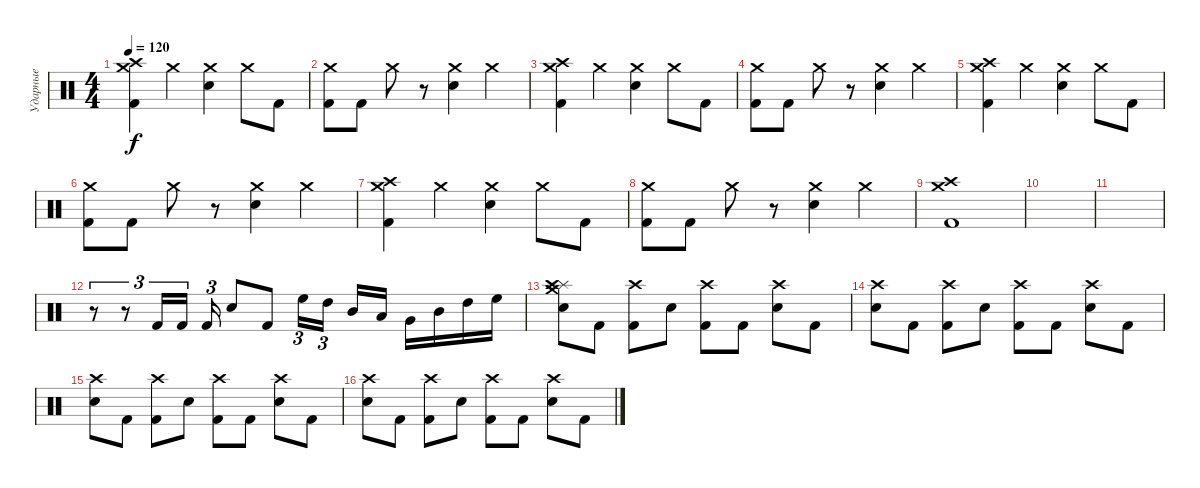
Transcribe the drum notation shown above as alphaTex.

\track ("Ударные" "Ударные") {instrument percussion}
\staff {score}
\articulation defaults
\ts (4 4)
\tempo 120
\clef neutral
\ks c
("Crash medium (hit)" "Crash high (hit)" "Kick (hit) 2").4{dy f} "Crash medium (hit)".4 ("Crash medium (hit)" "Electric Snare (hit)").4 "Crash medium (hit)".8 "Kick (hit) 2".8 |
("Crash medium (hit)" "Kick (hit) 2").8 "Kick (hit) 2".8 "Crash medium (hit)".8 r.8 ("Crash medium (hit)" "Electric Snare (hit)").4 "Crash medium (hit)".4 |
("Crash medium (hit)" "Crash high (hit)" "Kick (hit) 2").4 "Crash medium (hit)".4 ("Crash medium (hit)" "Electric Snare (hit)").4 "Crash medium (hit)".8 "Kick (hit) 2".8 |
("Crash medium (hit)" "Kick (hit) 2").8 "Kick (hit) 2".8 "Crash medium (hit)".8 r.8 ("Crash medium (hit)" "Electric Snare (hit)").4 "Crash medium (hit)".4 |
("Crash medium (hit)" "Crash high (hit)" "Kick (hit) 2").4 "Crash medium (hit)".4 ("Crash medium (hit)" "Electric Snare (hit)").4 "Crash medium (hit)".8 "Kick (hit) 2".8 |
("Crash medium (hit)" "Kick (hit) 2").8 "Kick (hit) 2".8 "Crash medium (hit)".8 r.8 ("Crash medium (hit)" "Electric Snare (hit)").4 "Crash medium (hit)".4 |
("Crash medium (hit)" "Crash high (hit)" "Kick (hit) 2").4 "Crash medium (hit)".4 ("Crash medium (hit)" "Electric Snare (hit)").4 "Crash medium (hit)".8 "Kick (hit) 2".8 |
("Crash medium (hit)" "Kick (hit) 2").8 "Kick (hit) 2".8 "Crash medium (hit)".8 r.8 ("Crash medium (hit)" "Electric Snare (hit)").4 "Crash medium (hit)".4 |
("Crash medium (hit)" "Crash high (hit)" "Kick (hit) 2").1 |
|
|
r.8{tu (3 2)} r.8{tu (3 2)} "Kick (hit) 2".16{tu (3 2)} "Kick (hit) 2".16{tu (3 2)} "Kick (hit) 2".16{tu (3 2)} "Electric Snare (hit)".8 "Kick (hit) 2".8 "High Floor Tom (hit)".16{tu (3 2)} "High Tom (hit)".16{tu (3 2) beam splitsecondary} "Mid Tom (hit)".16 "Low Tom (hit)".16 "Very Low Tom (hit)".16 "Mid Tom (hit)".16 "High Tom (hit)".16 "High Floor Tom (hit)".16 |
("Electric Snare (hit)" "Splash (hit)" "Crash medium (hit)" "Crash high (hit)").8 "Kick (hit) 2".8 ("Kick (hit) 2" "Crash high (hit)").8 "Electric Snare (hit)".8 ("Kick (hit) 2" "Crash high (hit)").8 "Kick (hit) 2".8 ("Electric Snare (hit)" "Crash high (hit)").8 "Kick (hit) 2".8 |
("Electric Snare (hit)" "Crash high (hit)").8 "Kick (hit) 2".8 ("Kick (hit) 2" "Crash high (hit)").8 "Electric Snare (hit)".8 ("Kick (hit) 2" "Crash high (hit)").8 "Kick (hit) 2".8 ("Electric Snare (hit)" "Crash high (hit)").8 "Kick (hit) 2".8 |
("Electric Snare (hit)" "Crash high (hit)").8 "Kick (hit) 2".8 ("Kick (hit) 2" "Crash high (hit)").8 "Electric Snare (hit)".8 ("Kick (hit) 2" "Crash high (hit)").8 "Kick (hit) 2".8 ("Electric Snare (hit)" "Crash high (hit)").8 "Kick (hit) 2".8 |
("Electric Snare (hit)" "Crash high (hit)").8 "Kick (hit) 2".8 ("Kick (hit) 2" "Crash high (hit)").8 "Electric Snare (hit)".8 ("Kick (hit) 2" "Crash high (hit)").8 "Kick (hit) 2".8 ("Electric Snare (hit)" "Crash high (hit)").8 "Kick (hit) 2".8
